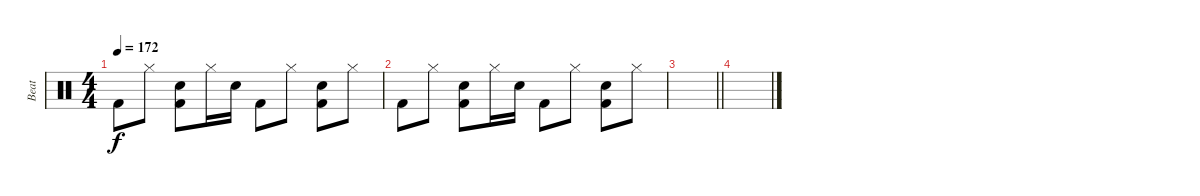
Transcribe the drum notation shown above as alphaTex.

\track ("Beat" "Beat") {instrument percussion}
\staff {score}
\articulation defaults
\ts (4 4)
\tempo 172
\clef neutral
\ks c "Kick (hit) 2".8{dy f} "Hi-Hat (closed)".8
("Kick (hit) 2" "Snare (hit) 2").8 "Hi-Hat (closed)".16 "Snare (hit) 2".16 "Kick (hit) 2".8 "Hi-Hat (closed)".8 ("Kick (hit) 2" "Snare (hit) 2").8 "Hi-Hat (closed)".8 |
"Kick (hit) 2".8 "Hi-Hat (closed)".8 ("Kick (hit) 2" "Snare (hit) 2").8 "Hi-Hat (closed)".16 "Snare (hit) 2".16 "Kick (hit) 2".8 "Hi-Hat (closed)".8 ("Kick (hit) 2" "Snare (hit) 2").8 "Hi-Hat (closed)".8 |
\barLineRight lightlight
|
\section ("" " ")
